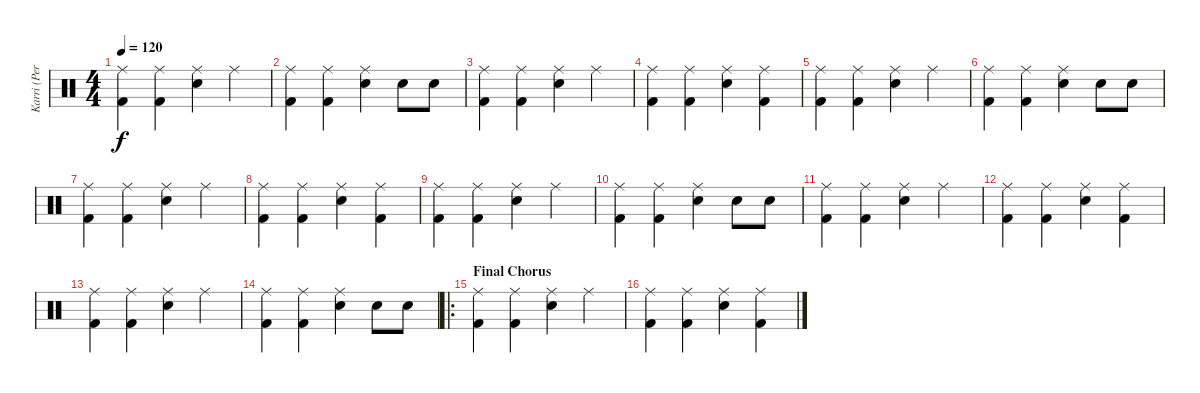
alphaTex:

\track ("Karri (Percussion)" "Karri (Per") {instrument percussion}
\staff {score}
\articulation defaults
\ts (4 4)
\tempo 120
\clef neutral
\ks c
("Ride (middle)" "Kick (hit) 2").4{dy f} ("Ride (middle)" "Kick (hit) 2").4 ("Ride (middle)" "Snare (hit) 2").4 "Ride (middle)".4 |
("Ride (middle)" "Kick (hit) 2").4 ("Ride (middle)" "Kick (hit) 2").4 ("Ride (middle)" "Snare (hit) 2").4 "Snare (hit) 2".8 "Snare (hit) 2".8 |
("Ride (middle)" "Kick (hit) 2").4 ("Ride (middle)" "Kick (hit) 2").4 ("Ride (middle)" "Snare (hit) 2").4 "Ride (middle)".4 |
("Ride (middle)" "Kick (hit) 2").4 ("Ride (middle)" "Kick (hit) 2").4 ("Ride (middle)" "Snare (hit) 2").4 ("Ride (middle)" "Kick (hit) 2").4 |
("Ride (middle)" "Kick (hit) 2").4 ("Ride (middle)" "Kick (hit) 2").4 ("Ride (middle)" "Snare (hit) 2").4 "Ride (middle)".4 |
("Ride (middle)" "Kick (hit) 2").4 ("Ride (middle)" "Kick (hit) 2").4 ("Ride (middle)" "Snare (hit) 2").4 "Snare (hit) 2".8 "Snare (hit) 2".8 |
("Ride (middle)" "Kick (hit) 2").4 ("Ride (middle)" "Kick (hit) 2").4 ("Ride (middle)" "Snare (hit) 2").4 "Ride (middle)".4 |
("Ride (middle)" "Kick (hit) 2").4 ("Ride (middle)" "Kick (hit) 2").4 ("Ride (middle)" "Snare (hit) 2").4 ("Ride (middle)" "Kick (hit) 2").4 |
("Ride (middle)" "Kick (hit) 2").4 ("Ride (middle)" "Kick (hit) 2").4 ("Ride (middle)" "Snare (hit) 2").4 "Ride (middle)".4 |
("Ride (middle)" "Kick (hit) 2").4 ("Ride (middle)" "Kick (hit) 2").4 ("Ride (middle)" "Snare (hit) 2").4 "Snare (hit) 2".8 "Snare (hit) 2".8 |
("Ride (middle)" "Kick (hit) 2").4 ("Ride (middle)" "Kick (hit) 2").4 ("Ride (middle)" "Snare (hit) 2").4 "Ride (middle)".4 |
("Ride (middle)" "Kick (hit) 2").4 ("Ride (middle)" "Kick (hit) 2").4 ("Ride (middle)" "Snare (hit) 2").4 ("Ride (middle)" "Kick (hit) 2").4 |
("Ride (middle)" "Kick (hit) 2").4 ("Ride (middle)" "Kick (hit) 2").4 ("Ride (middle)" "Snare (hit) 2").4 "Ride (middle)".4 |
("Ride (middle)" "Kick (hit) 2").4 ("Ride (middle)" "Kick (hit) 2").4 ("Ride (middle)" "Snare (hit) 2").4 "Snare (hit) 2".8 "Snare (hit) 2".8 |
\ro
\section ("" "Final Chorus")
("Ride (middle)" "Kick (hit) 2").4 ("Ride (middle)" "Kick (hit) 2").4 ("Ride (middle)" "Snare (hit) 2").4 "Ride (middle)".4 |
("Ride (middle)" "Kick (hit) 2").4 ("Ride (middle)" "Kick (hit) 2").4 ("Ride (middle)" "Snare (hit) 2").4 ("Ride (middle)" "Kick (hit) 2").4
